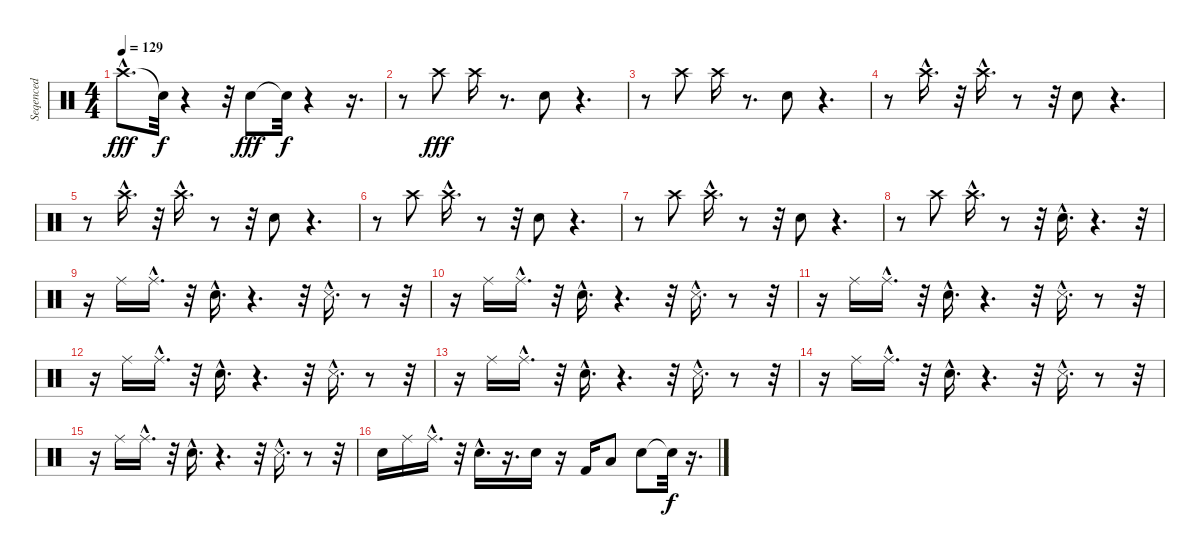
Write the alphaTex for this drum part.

\track (" Seqenced by Juri D." " Seqenced ") {instrument percussion}
\staff {score}
\articulation defaults
\ts (4 4)
\tempo 129
\clef neutral
\ks c "Crash high (hit)"{hac}.8{d dy fff} "Snare (hit)"{t}.32{dy f}
r.4 r.32 "Snare (hit) 2".8{dy fff} "Snare (hit)"{t}.32{dy f} r.4 r.16{d} |
r.8 "Crash high (hit)".8{dy fff} "Crash high (hit)".16 r.8{d} "Snare (hit) 2".8 r.4{d} |
r.8 "Crash high (hit)".8 "Crash high (hit)".16 r.8{d} "Snare (hit) 2".8 r.4{d} |
r.8 "Crash high (hit)"{hac}.16{d} r.32 "Crash high (hit)"{hac}.16{d} r.8 r.32 "Snare (hit) 2".8 r.4{d} |
r.8 "Crash high (hit)"{hac}.16{d} r.32 "Crash high (hit)"{hac}.16{d} r.8 r.32 "Snare (hit) 2".8 r.4{d} |
r.8 "Crash high (hit)".8 "Crash high (hit)"{hac}.16{d} r.8 r.32 "Snare (hit) 2".8 r.4{d} |
r.8 "Crash high (hit)".8 "Crash high (hit)"{hac}.16{d} r.8 r.32 "Snare (hit) 2".8 r.4{d} |
r.8 "Crash high (hit)".8 "Crash high (hit)"{hac}.16{d} r.8 r.32 "Snare (hit) 2"{hac}.16{d} r.4{d} r.32 |
r.16 "Ride (middle)".16 "Ride (middle)"{hac}.16{d} r.32 "Electric Snare (hit)"{hac}.16{d} r.4{d} r.32 "Snare (side stick) 3"{hac}.16{d} r.8 r.32 |
r.16 "Ride (middle)".16 "Ride (middle)"{hac}.16{d} r.32 "Electric Snare (hit)"{hac}.16{d} r.4{d} r.32 "Snare (side stick) 3"{hac}.16{d} r.8 r.32 |
r.16 "Ride (middle)".16 "Ride (middle)"{hac}.16{d} r.32 "Electric Snare (hit)"{hac}.16{d} r.4{d} r.32 "Snare (side stick) 3"{hac}.16{d} r.8 r.32 |
r.16 "Ride (middle)".16 "Ride (middle)"{hac}.16{d} r.32 "Electric Snare (hit)"{hac}.16{d} r.4{d} r.32 "Snare (side stick) 3"{hac}.16{d} r.8 r.32 |
r.16 "Ride (middle)".16 "Ride (middle)"{hac}.16{d} r.32 "Electric Snare (hit)"{hac}.16{d} r.4{d} r.32 "Snare (side stick) 3"{hac}.16{d} r.8 r.32 |
r.16 "Ride (middle)".16 "Ride (middle)"{hac}.16{d} r.32 "Electric Snare (hit)"{hac}.16{d} r.4{d} r.32 "Snare (side stick) 3"{hac}.16{d} r.8 r.32 |
r.16 "Ride (middle)".16 "Ride (middle)"{hac}.16{d} r.32 "Electric Snare (hit)"{hac}.16{d} r.4{d} r.32 "Snare (side stick) 3"{hac}.16{d} r.8 r.32 |
"Snare (hit) 2".16 "Ride (middle)".16 "Ride (middle)"{hac}.16{d} r.32 "Snare (hit) 2"{hac}.16{d} r.16{d} "Snare (hit) 2".16 r.16 "Kick (hit) 2".16 "Low Floor Tom (hit)".8 "Electric Snare (hit)".8 "Snare (hit)"{t}.32{dy f} r.16{d}
